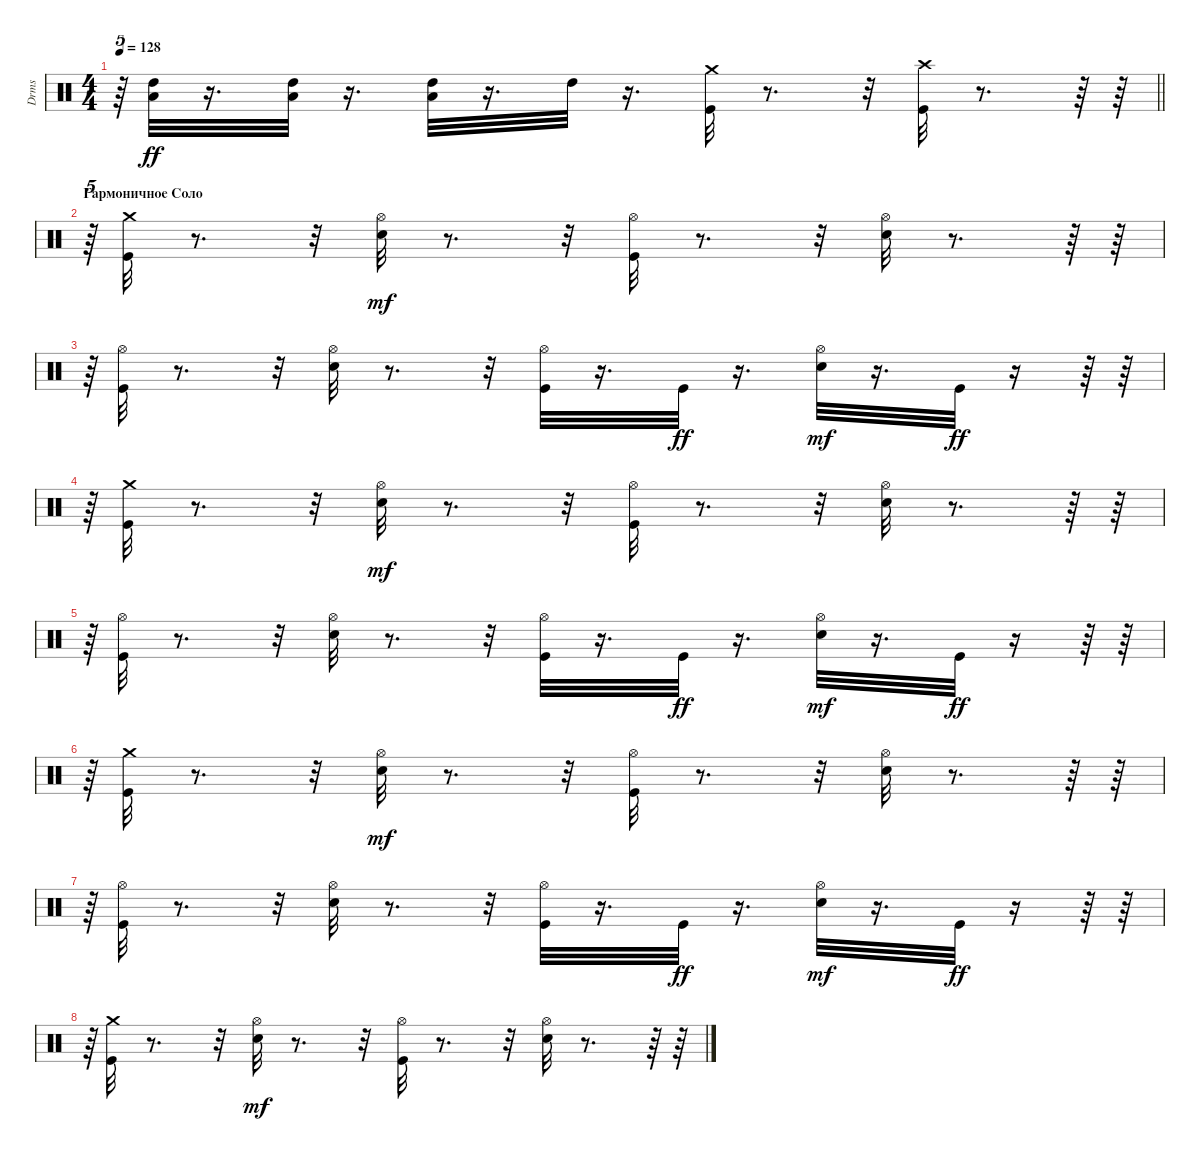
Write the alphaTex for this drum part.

\track ("Drms" "Drms") {instrument percussion}
\staff {score}
\articulation defaults
\ts (4 4)
\tempo 128
\clef neutral
\barLineRight lightlight
\ks c
r.64{tu (5 4) dy mf} ("Low Tom (hit)" "High Tom (hit)").32{dy ff} r.16{d} ("Low Tom (hit)" "High Tom (hit)").32 r.16{d} ("Low Tom (hit)" "High Tom (hit)").32 r.16{d} "High Tom (hit)".32 r.16{d} ("Crash medium (hit)" "Kick (hit)").32 r.8{d} r.32 ("Crash high (hit)" "Kick (hit)").32 r.8{d} r.64 r.64 |
\section ("" "Гармоничное Соло")
r.64{tu (5 4)} ("Kick (hit)" "Crash medium (hit)").32 r.8{d} r.32 ("Snare (hit) 2" "Hi-Hat (open)").32{dy mf} r.8{d} r.32 ("Kick (hit)" "Hi-Hat (open)").32 r.8{d} r.32 ("Snare (hit) 2" "Hi-Hat (open)").32 r.8{d} r.64 r.64 |
r.64{tu (5 4)} ("Kick (hit)" "Hi-Hat (open)").32 r.8{d} r.32 ("Snare (hit) 2" "Hi-Hat (open)").32 r.8{d} r.32 ("Kick (hit)" "Hi-Hat (open)").32 r.16{d} "Kick (hit)".32{dy ff} r.16{d} ("Snare (hit) 2" "Hi-Hat (open)").32{dy mf} r.16{d} "Kick (hit)".32{dy ff} r.16 r.64 r.64 |
r.64{tu (5 4)} ("Kick (hit)" "Crash medium (hit)").32 r.8{d} r.32 ("Snare (hit) 2" "Hi-Hat (open)").32{dy mf} r.8{d} r.32 ("Kick (hit)" "Hi-Hat (open)").32 r.8{d} r.32 ("Snare (hit) 2" "Hi-Hat (open)").32 r.8{d} r.64 r.64 |
r.64{tu (5 4)} ("Kick (hit)" "Hi-Hat (open)").32 r.8{d} r.32 ("Snare (hit) 2" "Hi-Hat (open)").32 r.8{d} r.32 ("Kick (hit)" "Hi-Hat (open)").32 r.16{d} "Kick (hit)".32{dy ff} r.16{d} ("Snare (hit) 2" "Hi-Hat (open)").32{dy mf} r.16{d} "Kick (hit)".32{dy ff} r.16 r.64 r.64 |
r.64{tu (5 4)} ("Kick (hit)" "Crash medium (hit)").32 r.8{d} r.32 ("Snare (hit) 2" "Hi-Hat (open)").32{dy mf} r.8{d} r.32 ("Kick (hit)" "Hi-Hat (open)").32 r.8{d} r.32 ("Snare (hit) 2" "Hi-Hat (open)").32 r.8{d} r.64 r.64 |
r.64{tu (5 4)} ("Kick (hit)" "Hi-Hat (open)").32 r.8{d} r.32 ("Snare (hit) 2" "Hi-Hat (open)").32 r.8{d} r.32 ("Kick (hit)" "Hi-Hat (open)").32 r.16{d} "Kick (hit)".32{dy ff} r.16{d} ("Snare (hit) 2" "Hi-Hat (open)").32{dy mf} r.16{d} "Kick (hit)".32{dy ff} r.16 r.64 r.64 |
r.64{tu (5 4)} ("Kick (hit)" "Crash medium (hit)").32 r.8{d} r.32 ("Snare (hit) 2" "Hi-Hat (open)").32{dy mf} r.8{d} r.32 ("Kick (hit)" "Hi-Hat (open)").32 r.8{d} r.32 ("Snare (hit) 2" "Hi-Hat (open)").32 r.8{d} r.64 r.64
